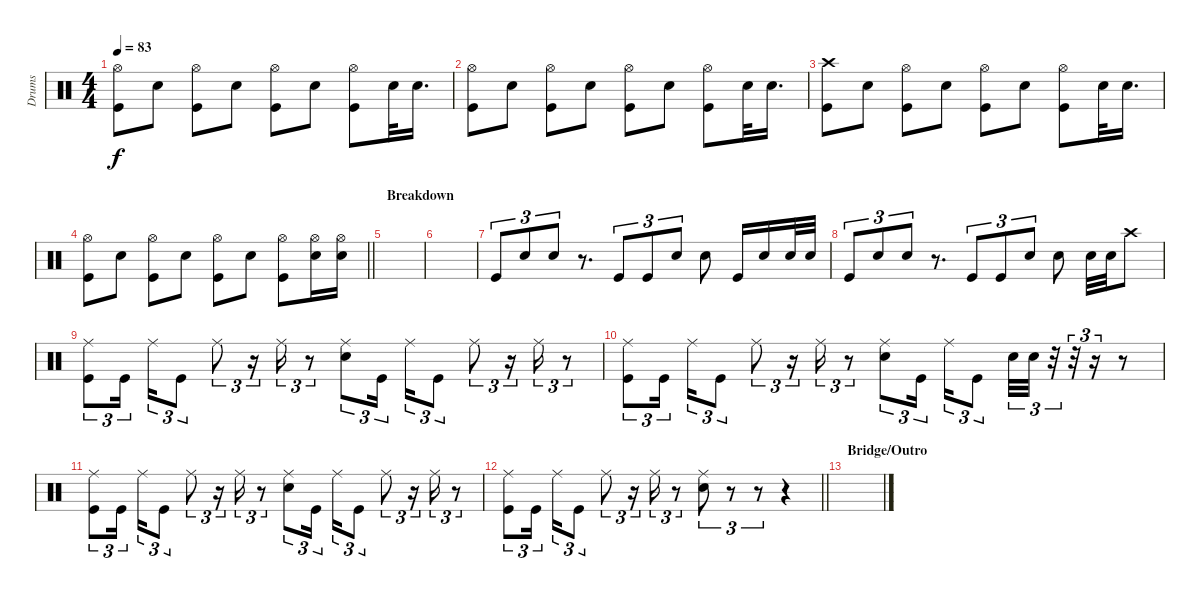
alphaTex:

\track ("Drums" "Drums") {instrument percussion}
\staff {score}
\articulation defaults
\ts (4 4)
\tempo 83
\clef neutral
\ks c
("Hi-Hat (open)" "Kick (hit)").8{dy f} "Electric Snare (hit)".8 ("Hi-Hat (open)" "Kick (hit)").8 "Electric Snare (hit)".8 ("Hi-Hat (open)" "Kick (hit)").8 "Electric Snare (hit)".8 ("Hi-Hat (open)" "Kick (hit)").8 "Electric Snare (hit)".32 "Electric Snare (hit)".16{d} |
("Hi-Hat (open)" "Kick (hit)").8 "Electric Snare (hit)".8 ("Hi-Hat (open)" "Kick (hit)").8 "Electric Snare (hit)".8 ("Hi-Hat (open)" "Kick (hit)").8 "Electric Snare (hit)".8 ("Hi-Hat (open)" "Kick (hit)").8 "Electric Snare (hit)".32 "Electric Snare (hit)".16{d} |
("Crash high (hit)" "Kick (hit)").8 "Electric Snare (hit)".8 ("Hi-Hat (open)" "Kick (hit)").8 "Electric Snare (hit)".8 ("Hi-Hat (open)" "Kick (hit)").8 "Electric Snare (hit)".8 ("Hi-Hat (open)" "Kick (hit)").8 "Electric Snare (hit)".32 "Electric Snare (hit)".16{d} |
\barLineRight lightlight
("Hi-Hat (open)" "Kick (hit)").8 "Electric Snare (hit)".8 ("Hi-Hat (open)" "Kick (hit)").8 "Electric Snare (hit)".8 ("Hi-Hat (open)" "Kick (hit)").8 "Electric Snare (hit)".8 ("Hi-Hat (open)" "Kick (hit)").8 ("Hi-Hat (open)" "Electric Snare (hit)").16 ("Hi-Hat (open)" "Electric Snare (hit)").16 |
\section ("" "Breakdown")
|
|
"Kick (hit)".8{tu (3 2)} "Electric Snare (hit)".8{tu (3 2)} "Electric Snare (hit)".8{tu (3 2)} r.8{d} "Kick (hit)".8{tu (3 2)} "Kick (hit)".8{tu (3 2)} "Electric Snare (hit)".8{tu (3 2)} "Electric Snare (hit)".8 "Kick (hit)".16 "Electric Snare (hit)".16 "Electric Snare (hit)".32 "Electric Snare (hit)".32 |
"Kick (hit)".8{tu (3 2)} "Electric Snare (hit)".8{tu (3 2)} "Electric Snare (hit)".8{tu (3 2)} r.8{d} "Kick (hit)".8{tu (3 2)} "Kick (hit)".8{tu (3 2)} "Electric Snare (hit)".8{tu (3 2)} "Electric Snare (hit)".8 "Electric Snare (hit)".32 "Electric Snare (hit)".32 "Crash high (hit)".8 |
("Ride (middle)" "Kick (hit)").8{tu (3 2)} "Kick (hit)".16{tu (3 2) beam splitsecondary} "Ride (middle)".16{tu (3 2)} "Kick (hit)".8{tu (3 2)} "Ride (middle)".8{tu (3 2)} r.16{tu (3 2)} "Ride (middle)".16{tu (3 2)} r.8{tu (3 2)} ("Ride (middle)" "Electric Snare (hit)").8{tu (3 2)} "Kick (hit)".16{tu (3 2) beam splitsecondary} "Ride (middle)".16{tu (3 2)} "Kick (hit)".8{tu (3 2)} "Ride (middle)".8{tu (3 2)} r.16{tu (3 2)} "Ride (middle)".16{tu (3 2)} r.8{tu (3 2)} |
("Ride (middle)" "Kick (hit)").8{tu (3 2)} "Kick (hit)".16{tu (3 2) beam splitsecondary} "Ride (middle)".16{tu (3 2)} "Kick (hit)".8{tu (3 2)} "Ride (middle)".8{tu (3 2)} r.16{tu (3 2)} "Ride (middle)".16{tu (3 2)} r.8{tu (3 2)} ("Ride (middle)" "Electric Snare (hit)").8{tu (3 2)} "Kick (hit)".16{tu (3 2) beam splitsecondary} "Ride (middle)".16{tu (3 2)} "Kick (hit)".8{tu (3 2)} "Electric Snare (hit)".32{tu (3 2)} "Electric Snare (hit)".32{tu (3 2)} r.32{tu (3 2)} r.32{tu (3 2)} r.16{tu (3 2)} r.8 |
("Ride (middle)" "Kick (hit)").8{tu (3 2)} "Kick (hit)".16{tu (3 2) beam splitsecondary} "Ride (middle)".16{tu (3 2)} "Kick (hit)".8{tu (3 2)} "Ride (middle)".8{tu (3 2)} r.16{tu (3 2)} "Ride (middle)".16{tu (3 2)} r.8{tu (3 2)} ("Ride (middle)" "Electric Snare (hit)").8{tu (3 2)} "Kick (hit)".16{tu (3 2) beam splitsecondary} "Ride (middle)".16{tu (3 2)} "Kick (hit)".8{tu (3 2)} "Ride (middle)".8{tu (3 2)} r.16{tu (3 2)} "Ride (middle)".16{tu (3 2)} r.8{tu (3 2)} |
\barLineRight lightlight
("Ride (middle)" "Kick (hit)").8{tu (3 2)} "Kick (hit)".16{tu (3 2) beam splitsecondary} "Ride (middle)".16{tu (3 2)} "Kick (hit)".8{tu (3 2)} "Ride (middle)".8{tu (3 2)} r.16{tu (3 2)} "Ride (middle)".16{tu (3 2)} r.8{tu (3 2)} ("Ride (middle)" "Electric Snare (hit)").8{tu (3 2)} r.8{tu (3 2)} r.8{tu (3 2)} r.4 |
\section ("" "Bridge/Outro")
